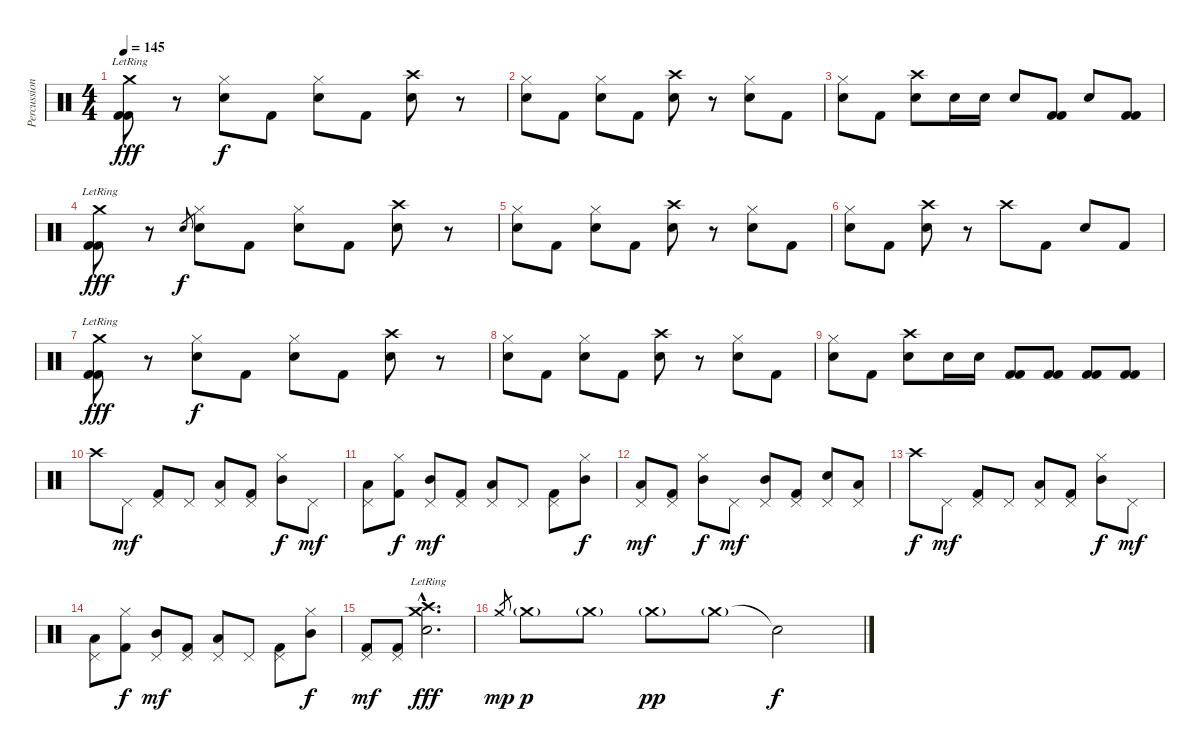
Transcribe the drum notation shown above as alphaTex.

\track ("Percussion" "Percussion") {instrument percussion}
\staff {score}
\articulation defaults
\ts (4 4)
\tempo 145
\clef neutral
\ks c
("Crash medium (hit)"{lr} "Kick (hit) 2" "Kick (hit) 2").8{dy fff} r.8 ("Hi-Hat (closed)" "Electric Snare (hit)").8{dy f} "Kick (hit) 2".8 ("Hi-Hat (closed)" "Electric Snare (hit)").8 "Kick (hit) 2".8 ("Crash high (hit)" "Snare (hit) 2").8 r.8 |
("Hi-Hat (closed)" "Electric Snare (hit)").8 "Kick (hit) 2".8 ("Hi-Hat (closed)" "Electric Snare (hit)").8 "Kick (hit) 2".8 ("Crash high (hit)" "Snare (hit) 2").8 r.8 ("Hi-Hat (closed)" "Electric Snare (hit)").8 "Kick (hit) 2".8 |
("Hi-Hat (closed)" "Electric Snare (hit)").8 "Kick (hit) 2".8 ("Crash high (hit)" "Snare (hit) 2").8 "Snare (hit) 2".16 "Snare (hit) 2".16 "Snare (hit) 2".8 ("Kick (hit) 2" "Kick (hit) 2").8 "Snare (hit) 2".8 ("Kick (hit) 2" "Kick (hit) 2").8 |
("Crash medium (hit)"{lr} "Kick (hit) 2" "Kick (hit) 2").8{dy fff} r.8 "Electric Snare (hit)".8{gr dy f} ("Hi-Hat (closed)" "Electric Snare (hit)").8 "Kick (hit) 2".8 ("Hi-Hat (closed)" "Electric Snare (hit)").8 "Kick (hit) 2".8 ("Crash high (hit)" "Snare (hit) 2").8 r.8 |
("Hi-Hat (closed)" "Electric Snare (hit)").8 "Kick (hit) 2".8 ("Hi-Hat (closed)" "Electric Snare (hit)").8 "Kick (hit) 2".8 ("Crash high (hit)" "Snare (hit) 2").8 r.8 ("Hi-Hat (closed)" "Electric Snare (hit)").8 "Kick (hit) 2".8 |
("Hi-Hat (closed)" "Electric Snare (hit)").8 "Kick (hit) 2".8 ("Crash high (hit)" "Snare (hit) 2").8 r.8 "Crash high (hit)".8 "Kick (hit) 2".8 "Snare (hit) 2".8 "Kick (hit) 2".8 |
("Crash medium (hit)"{lr} "Kick (hit) 2" "Kick (hit) 2").8{dy fff} r.8 ("Hi-Hat (closed)" "Electric Snare (hit)").8{dy f} "Kick (hit) 2".8 ("Hi-Hat (closed)" "Electric Snare (hit)").8 "Kick (hit) 2".8 ("Crash high (hit)" "Snare (hit) 2").8 r.8 |
("Hi-Hat (closed)" "Electric Snare (hit)").8 "Kick (hit) 2".8 ("Hi-Hat (closed)" "Electric Snare (hit)").8 "Kick (hit) 2".8 ("Crash high (hit)" "Snare (hit) 2").8 r.8 ("Hi-Hat (closed)" "Electric Snare (hit)").8 "Kick (hit) 2".8 |
("Hi-Hat (closed)" "Electric Snare (hit)").8 "Kick (hit) 2".8 ("Crash high (hit)" "Snare (hit) 2").8 "Snare (hit) 2".16 "Snare (hit) 2".16 ("Kick (hit) 2" "Kick (hit) 2").8 ("Kick (hit) 2" "Kick (hit) 2").8 ("Kick (hit) 2" "Kick (hit) 2").8 ("Kick (hit) 2" "Kick (hit) 2").8 |
"Crash high (hit)".8 "Pedal Hi-Hat (hit)".8{dy mf} ("Pedal Hi-Hat (hit)" "Kick (hit) 2").8 "Pedal Hi-Hat (hit)".8 ("Pedal Hi-Hat (hit)" "Low Tom (hit)").8 ("Pedal Hi-Hat (hit)" "Kick (hit) 2").8 ("Hi-Hat (closed)" "Mid Tom (hit)").8{dy f} "Pedal Hi-Hat (hit)".8{dy mf} |
("Pedal Hi-Hat (hit)" "Low Tom (hit)").8 ("Hi-Hat (closed)" "Kick (hit) 2").8{dy f} ("Pedal Hi-Hat (hit)" "Mid Tom (hit)").8{dy mf} ("Pedal Hi-Hat (hit)" "Kick (hit) 2").8 ("Pedal Hi-Hat (hit)" "Low Tom (hit)").8 "Pedal Hi-Hat (hit)".8 ("Pedal Hi-Hat (hit)" "Kick (hit) 2").8 ("Hi-Hat (closed)" "Mid Tom (hit)").8{dy f} |
("Pedal Hi-Hat (hit)" "Low Tom (hit)").8{dy mf} ("Pedal Hi-Hat (hit)" "Kick (hit) 2").8 ("Hi-Hat (closed)" "Mid Tom (hit)").8{dy f} "Pedal Hi-Hat (hit)".8{dy mf} ("Pedal Hi-Hat (hit)" "Mid Tom (hit)").8 ("Pedal Hi-Hat (hit)" "Kick (hit) 2").8 ("Pedal Hi-Hat (hit)" "Snare (hit) 2").8 ("Pedal Hi-Hat (hit)" "Low Tom (hit)").8 |
"Crash high (hit)".8{dy f} "Pedal Hi-Hat (hit)".8{dy mf} ("Pedal Hi-Hat (hit)" "Kick (hit) 2").8 "Pedal Hi-Hat (hit)".8 ("Pedal Hi-Hat (hit)" "Low Tom (hit)").8 ("Pedal Hi-Hat (hit)" "Kick (hit) 2").8 ("Hi-Hat (closed)" "Mid Tom (hit)").8{dy f} "Pedal Hi-Hat (hit)".8{dy mf} |
("Pedal Hi-Hat (hit)" "Low Tom (hit)").8 ("Hi-Hat (closed)" "Kick (hit) 2").8{dy f} ("Pedal Hi-Hat (hit)" "Mid Tom (hit)").8{dy mf} ("Pedal Hi-Hat (hit)" "Kick (hit) 2").8 ("Pedal Hi-Hat (hit)" "Low Tom (hit)").8 "Pedal Hi-Hat (hit)".8 ("Pedal Hi-Hat (hit)" "Kick (hit) 2").8 ("Hi-Hat (closed)" "Mid Tom (hit)").8{dy f} |
("Pedal Hi-Hat (hit)" "Kick (hit) 2").8{dy mf} ("Pedal Hi-Hat (hit)" "Kick (hit) 2").8 ("Crash medium (hit)"{hac lr} "Crash high (hit)"{hac lr} "Snare (hit) 2"{hac lr}).2{d dy fff} |
"Crash medium (hit)".8{gr dy mp} "Crash medium (hit)"{g}.8{dy p} "Crash medium (hit)"{g}.8 "Crash medium (hit)"{g}.8{dy pp} "Crash medium (hit)"{g}.8 "Snare (hit)"{t}.2{dy f}
